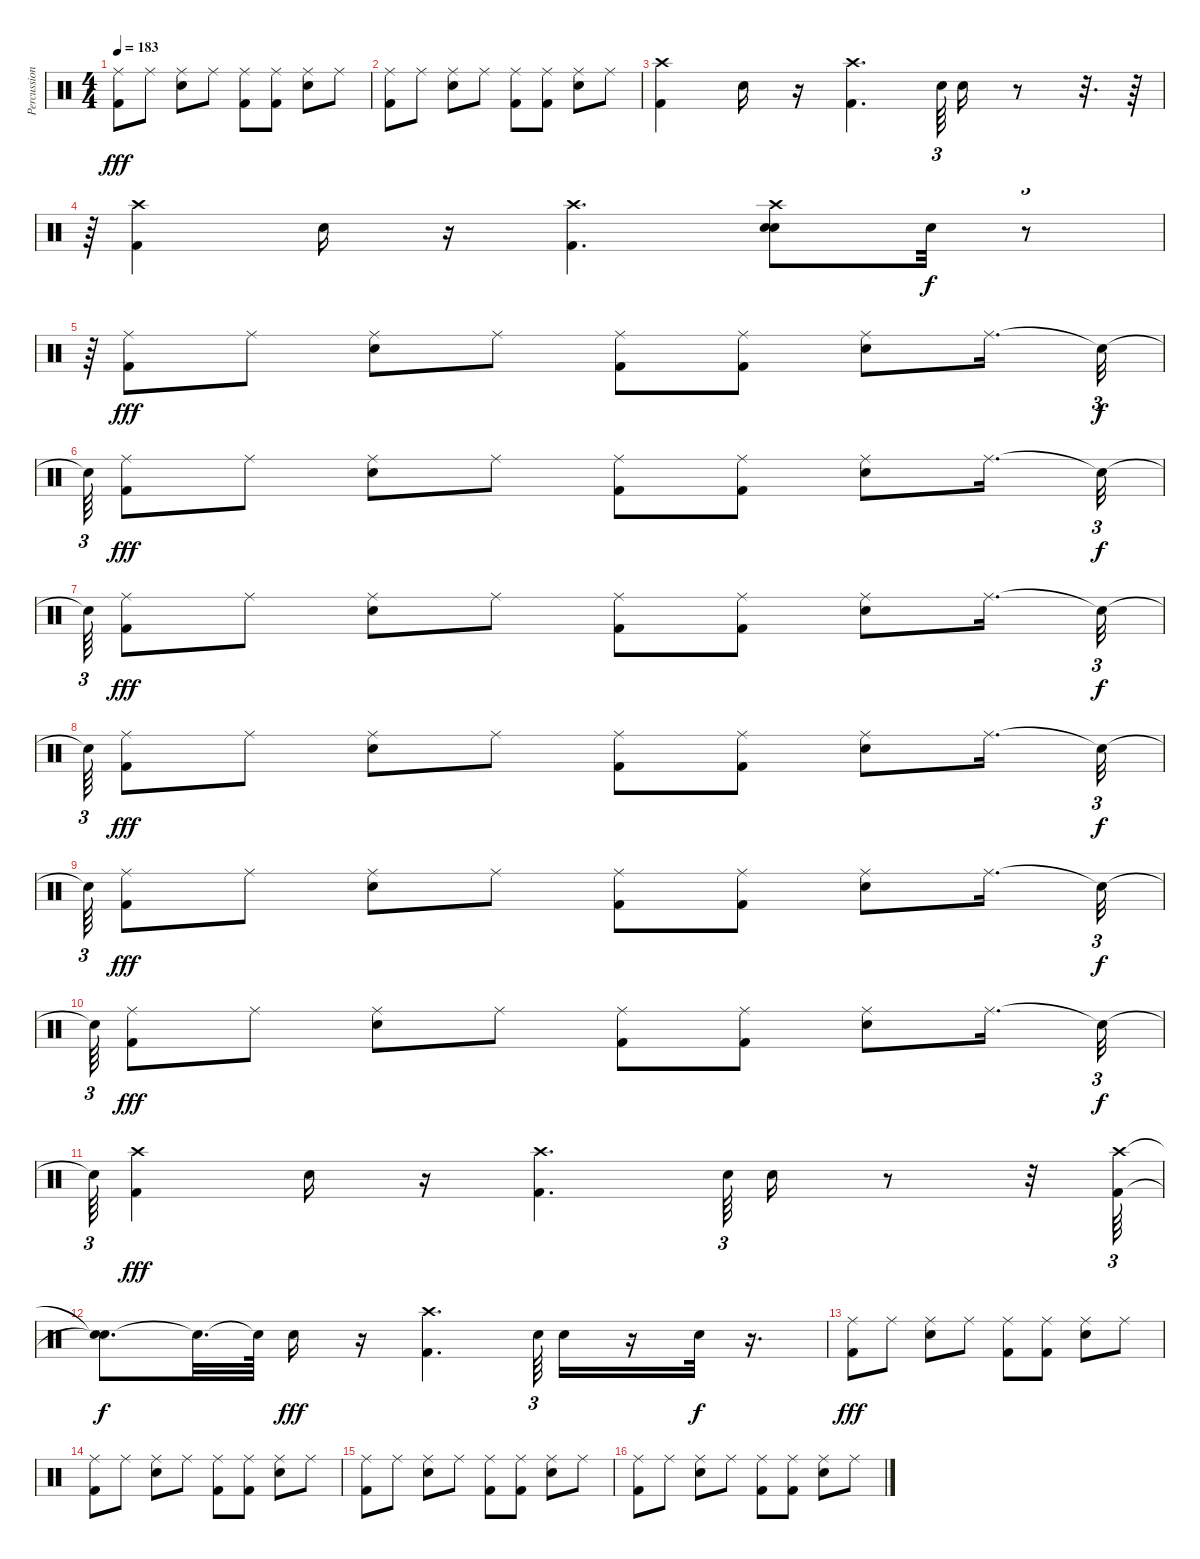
\track ("Percussioni" "Percussion") {instrument percussion}
\staff {score}
\articulation defaults
\ts (4 4)
\tempo 183
\clef neutral
\ks c
("Ride (middle)" "Kick (hit) 2").8{dy fff} "Ride (middle)".8 ("Ride (middle)" "Snare (hit) 2").8 "Ride (middle)".8 ("Ride (middle)" "Kick (hit) 2").8 ("Ride (middle)" "Kick (hit) 2").8 ("Ride (middle)" "Snare (hit) 2").8 "Ride (middle)".8 |
("Ride (middle)" "Kick (hit) 2").8 "Ride (middle)".8 ("Ride (middle)" "Snare (hit) 2").8 "Ride (middle)".8 ("Ride (middle)" "Kick (hit) 2").8 ("Ride (middle)" "Kick (hit) 2").8 ("Ride (middle)" "Snare (hit) 2").8 "Ride (middle)".8 |
("Crash high (hit)" "Kick (hit) 2").4 "Snare (hit) 2".16 r.16 ("Crash high (hit)" "Kick (hit) 2").4{d} "Snare (hit) 2".64{tu (3 2)} "Snare (hit) 2".16 r.8 r.32{d} r.64 |
r.64{tu (3 2)} ("Crash high (hit)" "Kick (hit) 2").4 "Snare (hit) 2".16 r.16 ("Crash high (hit)" "Kick (hit) 2").4{d} ("Snare (hit) 2" "Crash high (hit)" "Snare (hit) 2").8 "Snare (hit) 2".32{dy f} r.8{tu (3 2)} |
r.64{tu (3 2)} ("Ride (middle)" "Kick (hit) 2").8{dy fff} "Ride (middle)".8 ("Ride (middle)" "Snare (hit) 2").8 "Ride (middle)".8 ("Ride (middle)" "Kick (hit) 2").8 ("Ride (middle)" "Kick (hit) 2").8 ("Ride (middle)" "Snare (hit) 2").8 "Ride (middle)".16{d} "Snare (hit)"{t}.32{tu (3 2) dy f} |
"Snare (hit)"{t}.64{tu (3 2)} ("Ride (middle)" "Kick (hit) 2").8{dy fff} "Ride (middle)".8 ("Ride (middle)" "Snare (hit) 2").8 "Ride (middle)".8 ("Ride (middle)" "Kick (hit) 2").8 ("Ride (middle)" "Kick (hit) 2").8 ("Ride (middle)" "Snare (hit) 2").8 "Ride (middle)".16{d} "Snare (hit)"{t}.32{tu (3 2) dy f} |
"Snare (hit)"{t}.64{tu (3 2)} ("Ride (middle)" "Kick (hit) 2").8{dy fff} "Ride (middle)".8 ("Ride (middle)" "Snare (hit) 2").8 "Ride (middle)".8 ("Ride (middle)" "Kick (hit) 2").8 ("Ride (middle)" "Kick (hit) 2").8 ("Ride (middle)" "Snare (hit) 2").8 "Ride (middle)".16{d} "Snare (hit)"{t}.32{tu (3 2) dy f} |
"Snare (hit)"{t}.64{tu (3 2)} ("Ride (middle)" "Kick (hit) 2").8{dy fff} "Ride (middle)".8 ("Ride (middle)" "Snare (hit) 2").8 "Ride (middle)".8 ("Ride (middle)" "Kick (hit) 2").8 ("Ride (middle)" "Kick (hit) 2").8 ("Ride (middle)" "Snare (hit) 2").8 "Ride (middle)".16{d} "Snare (hit)"{t}.32{tu (3 2) dy f} |
"Snare (hit)"{t}.64{tu (3 2)} ("Ride (middle)" "Kick (hit) 2").8{dy fff} "Ride (middle)".8 ("Ride (middle)" "Snare (hit) 2").8 "Ride (middle)".8 ("Ride (middle)" "Kick (hit) 2").8 ("Ride (middle)" "Kick (hit) 2").8 ("Ride (middle)" "Snare (hit) 2").8 "Ride (middle)".16{d} "Snare (hit)"{t}.32{tu (3 2) dy f} |
"Snare (hit)"{t}.64{tu (3 2)} ("Ride (middle)" "Kick (hit) 2").8{dy fff} "Ride (middle)".8 ("Ride (middle)" "Snare (hit) 2").8 "Ride (middle)".8 ("Ride (middle)" "Kick (hit) 2").8 ("Ride (middle)" "Kick (hit) 2").8 ("Ride (middle)" "Snare (hit) 2").8 "Ride (middle)".16{d} "Snare (hit)"{t}.32{tu (3 2) dy f} |
"Snare (hit)"{t}.64{tu (3 2)} ("Crash high (hit)" "Kick (hit) 2").4{dy fff} "Snare (hit) 2".16 r.16 ("Crash high (hit)" "Kick (hit) 2").4{d} "Snare (hit) 2".64{tu (3 2)} "Snare (hit) 2".16 r.8 r.32 ("Crash high (hit)" "Kick (hit) 2").64{tu (3 2)} |
("Snare (hit)"{t} "Snare (hit)"{t}).8{d dy f} "Snare (hit)"{t}.32{d} "Snare (hit)"{t}.64 "Snare (hit) 2".16{dy fff} r.16 ("Crash high (hit)" "Kick (hit) 2").4{d} "Snare (hit) 2".64{tu (3 2)} "Snare (hit) 2".16 r.16 "Snare (hit) 2".32{dy f} r.16{d} |
("Ride (middle)" "Kick (hit) 2").8{dy fff} "Ride (middle)".8 ("Ride (middle)" "Snare (hit) 2").8 "Ride (middle)".8 ("Ride (middle)" "Kick (hit) 2").8 ("Ride (middle)" "Kick (hit) 2").8 ("Ride (middle)" "Snare (hit) 2").8 "Ride (middle)".8 |
("Ride (middle)" "Kick (hit) 2").8 "Ride (middle)".8 ("Ride (middle)" "Snare (hit) 2").8 "Ride (middle)".8 ("Ride (middle)" "Kick (hit) 2").8 ("Ride (middle)" "Kick (hit) 2").8 ("Ride (middle)" "Snare (hit) 2").8 "Ride (middle)".8 |
("Ride (middle)" "Kick (hit) 2").8 "Ride (middle)".8 ("Ride (middle)" "Snare (hit) 2").8 "Ride (middle)".8 ("Ride (middle)" "Kick (hit) 2").8 ("Ride (middle)" "Kick (hit) 2").8 ("Ride (middle)" "Snare (hit) 2").8 "Ride (middle)".8 |
("Ride (middle)" "Kick (hit) 2").8 "Ride (middle)".8 ("Ride (middle)" "Snare (hit) 2").8 "Ride (middle)".8 ("Ride (middle)" "Kick (hit) 2").8 ("Ride (middle)" "Kick (hit) 2").8 ("Ride (middle)" "Snare (hit) 2").8 "Ride (middle)".8
